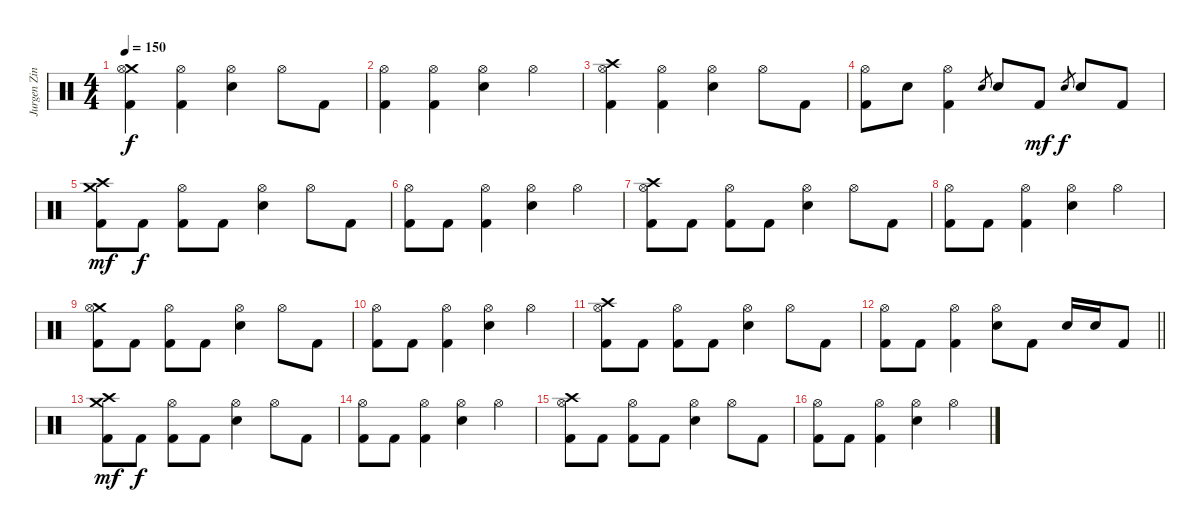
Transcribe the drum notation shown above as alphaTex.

\track ("Jurgen Zing" "Jurgen Zin") {instrument percussion}
\staff {score}
\articulation defaults
\ts (4 4)
\tempo 150
\clef neutral
\ks c
("Crash medium (hit)" "Hi-Hat (open)" "Kick (hit) 2").4{dy f} ("Hi-Hat (open)" "Kick (hit) 2").4 ("Hi-Hat (open)" "Electric Snare (hit)").4 "Hi-Hat (open)".8 "Kick (hit) 2".8 |
("Hi-Hat (open)" "Kick (hit) 2").4 ("Hi-Hat (open)" "Kick (hit) 2").4 ("Hi-Hat (open)" "Electric Snare (hit)").4 "Hi-Hat (open)".4 |
("Crash high (hit)" "Hi-Hat (open)" "Kick (hit) 2").4 ("Hi-Hat (open)" "Kick (hit) 2").4 ("Hi-Hat (open)" "Electric Snare (hit)").4 "Hi-Hat (open)".8 "Kick (hit) 2".8 |
("Hi-Hat (open)" "Kick (hit) 2").8 "Electric Snare (hit)".8 ("Hi-Hat (open)" "Kick (hit) 2").4 "Electric Snare (hit)".8{gr} "Electric Snare (hit)".8 "Kick (hit) 2".8{dy mf} "Electric Snare (hit)".8{gr dy f} "Electric Snare (hit)".8 "Kick (hit) 2".8 |
("Crash medium (hit)" "Crash high (hit)" "Kick (hit) 2").8{dy mf} "Kick (hit) 2".8{dy f} ("Hi-Hat (open)" "Kick (hit) 2").8 "Kick (hit) 2".8 ("Hi-Hat (open)" "Electric Snare (hit)").4 "Hi-Hat (open)".8 "Kick (hit) 2".8 |
("Hi-Hat (open)" "Kick (hit) 2").8 "Kick (hit) 2".8 ("Hi-Hat (open)" "Kick (hit) 2").4 ("Hi-Hat (open)" "Electric Snare (hit)").4 "Hi-Hat (open)".4 |
("Crash high (hit)" "Hi-Hat (open)" "Kick (hit) 2").8 "Kick (hit) 2".8 ("Hi-Hat (open)" "Kick (hit) 2").8 "Kick (hit) 2".8 ("Hi-Hat (open)" "Electric Snare (hit)").4 "Hi-Hat (open)".8 "Kick (hit) 2".8 |
("Hi-Hat (open)" "Kick (hit) 2").8 "Kick (hit) 2".8 ("Hi-Hat (open)" "Kick (hit) 2").4 ("Hi-Hat (open)" "Electric Snare (hit)").4 "Hi-Hat (open)".4 |
("Crash medium (hit)" "Hi-Hat (open)" "Kick (hit) 2").8 "Kick (hit) 2".8 ("Hi-Hat (open)" "Kick (hit) 2").8 "Kick (hit) 2".8 ("Hi-Hat (open)" "Electric Snare (hit)").4 "Hi-Hat (open)".8 "Kick (hit) 2".8 |
("Hi-Hat (open)" "Kick (hit) 2").8 "Kick (hit) 2".8 ("Hi-Hat (open)" "Kick (hit) 2").4 ("Hi-Hat (open)" "Electric Snare (hit)").4 "Hi-Hat (open)".4 |
("Crash high (hit)" "Hi-Hat (open)" "Kick (hit) 2").8 "Kick (hit) 2".8 ("Hi-Hat (open)" "Kick (hit) 2").8 "Kick (hit) 2".8 ("Hi-Hat (open)" "Electric Snare (hit)").4 "Hi-Hat (open)".8 "Kick (hit) 2".8 |
\barLineRight lightlight
("Hi-Hat (open)" "Kick (hit) 2").8 "Kick (hit) 2".8 ("Hi-Hat (open)" "Kick (hit) 2").4 ("Hi-Hat (open)" "Electric Snare (hit)").8 "Kick (hit) 2".8 "Electric Snare (hit)".16 "Electric Snare (hit)".16 "Kick (hit) 2".8 |
("Crash medium (hit)" "Crash high (hit)" "Kick (hit) 2").8{dy mf} "Kick (hit) 2".8{dy f} ("Hi-Hat (open)" "Kick (hit) 2").8 "Kick (hit) 2".8 ("Hi-Hat (open)" "Electric Snare (hit)").4 "Hi-Hat (open)".8 "Kick (hit) 2".8 |
("Hi-Hat (open)" "Kick (hit) 2").8 "Kick (hit) 2".8 ("Hi-Hat (open)" "Kick (hit) 2").4 ("Hi-Hat (open)" "Electric Snare (hit)").4 "Hi-Hat (open)".4 |
("Crash high (hit)" "Hi-Hat (open)" "Kick (hit) 2").8 "Kick (hit) 2".8 ("Hi-Hat (open)" "Kick (hit) 2").8 "Kick (hit) 2".8 ("Hi-Hat (open)" "Electric Snare (hit)").4 "Hi-Hat (open)".8 "Kick (hit) 2".8 |
("Hi-Hat (open)" "Kick (hit) 2").8 "Kick (hit) 2".8 ("Hi-Hat (open)" "Kick (hit) 2").4 ("Hi-Hat (open)" "Electric Snare (hit)").4 "Hi-Hat (open)".4
